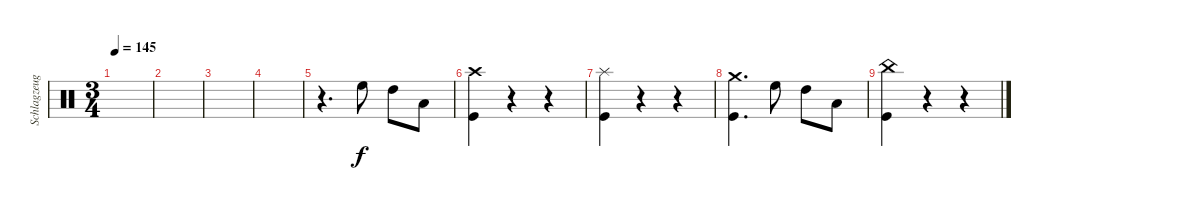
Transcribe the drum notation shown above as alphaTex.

\track ("Schlagzeug" "Schlagzeug") {instrument percussion}
\staff {score}
\articulation defaults
\ts (3 4)
\tempo 145
\clef neutral
\ks c
|
|
|
|
r.4{d} "High Floor Tom (hit)".8 "High Tom (hit)".8 "Low Tom (hit)".8 |
("Crash high (hit)" "Kick (hit)").4 r.4 r.4 |
("Splash (hit)" "Kick (hit)").4 r.4 r.4 |
("Crash medium (hit)" "Kick (hit)").4{d} "High Floor Tom (hit)".8 "High Tom (hit)".8 "Low Tom (hit)".8 |
("China (hit)" "Kick (hit)").4 r.4 r.4
